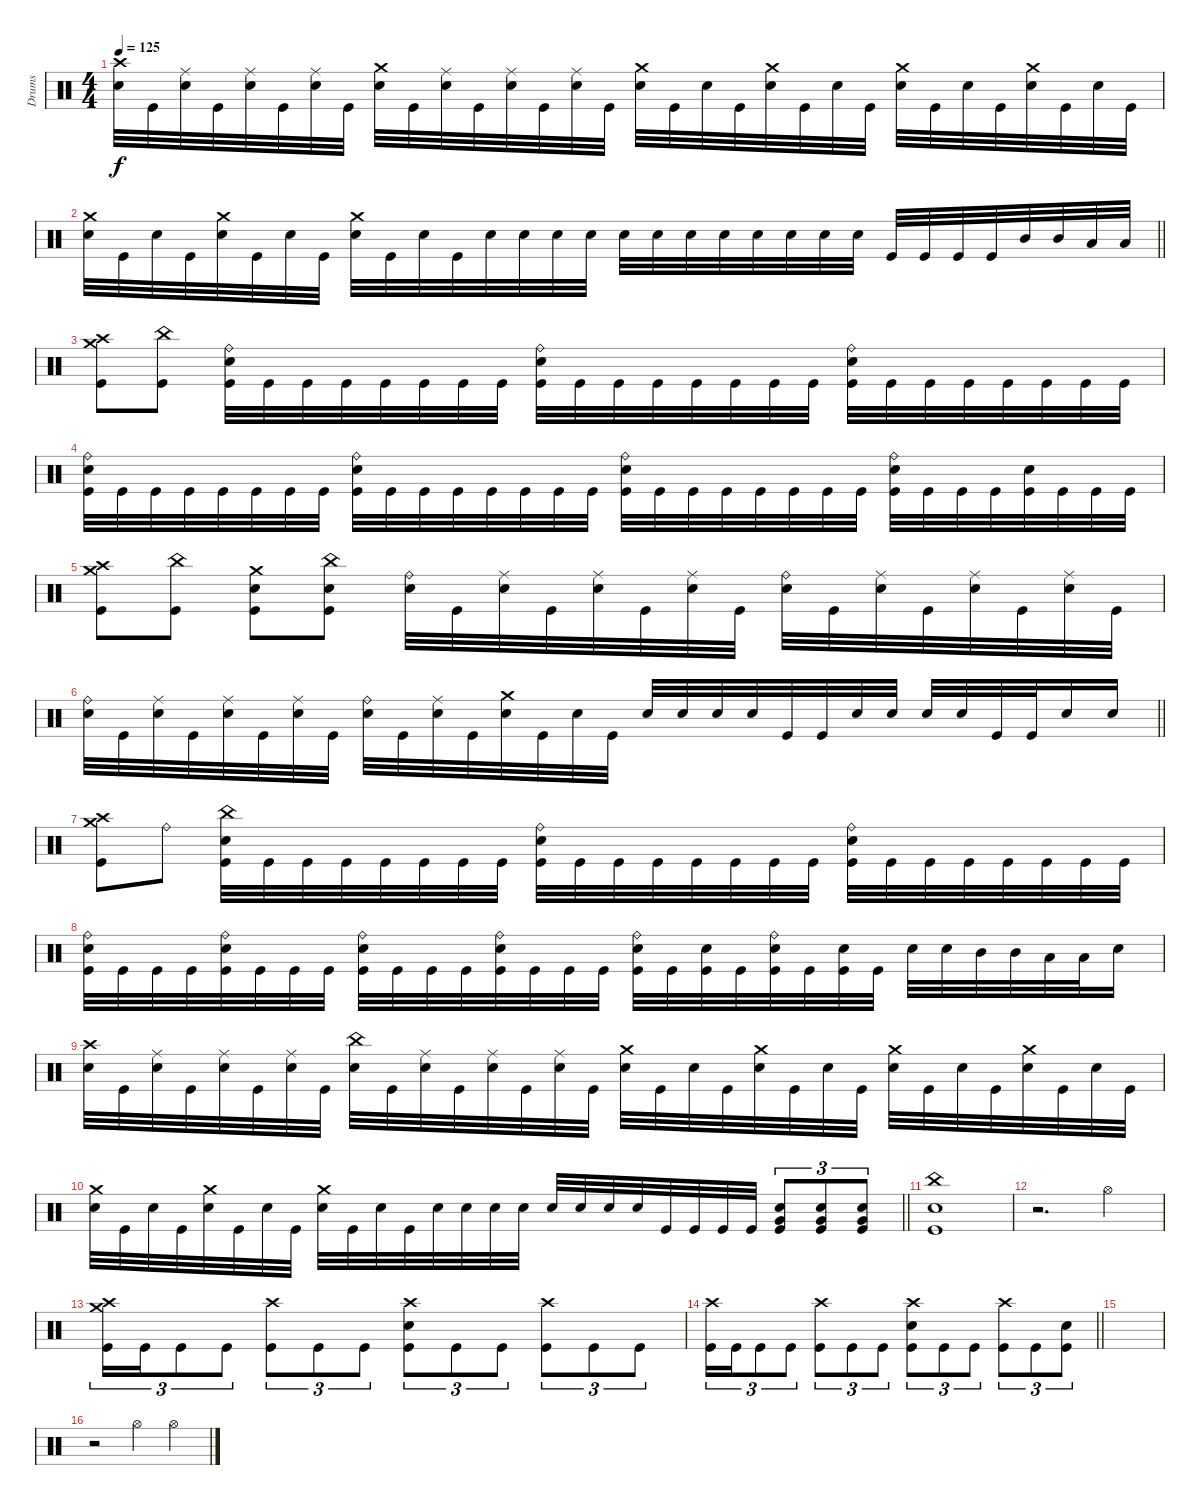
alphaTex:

\track ("Drums" "Drums") {instrument percussion}
\staff
\articulation defaults
\ts (4 4)
\tempo 125
\clef neutral
\ks c
("Crash high (hit)" "Electric Snare (hit)").32{dy f} "Kick (hit)".32 ("Ride (middle)" "Electric Snare (hit)").32 "Kick (hit)".32 ("Ride (middle)" "Electric Snare (hit)").32 "Kick (hit)".32 ("Ride (middle)" "Electric Snare (hit)").32 "Kick (hit)".32 ("Crash medium (hit)" "Electric Snare (hit)").32 "Kick (hit)".32 ("Ride (middle)" "Electric Snare (hit)").32 "Kick (hit)".32 ("Ride (middle)" "Electric Snare (hit)").32 "Kick (hit)".32 ("Ride (middle)" "Electric Snare (hit)").32 "Kick (hit)".32 ("Crash medium (hit)" "Electric Snare (hit)").32 "Kick (hit)".32 "Electric Snare (hit)".32 "Kick (hit)".32 ("Crash medium (hit)" "Electric Snare (hit)").32 "Kick (hit)".32 "Electric Snare (hit)".32 "Kick (hit)".32 ("Crash medium (hit)" "Electric Snare (hit)").32 "Kick (hit)".32 "Electric Snare (hit)".32 "Kick (hit)".32 ("Crash medium (hit)" "Electric Snare (hit)").32 "Kick (hit)".32 "Electric Snare (hit)".32 "Kick (hit)".32 |
\barLineRight lightlight
("Crash medium (hit)" "Electric Snare (hit)").32 "Kick (hit)".32 "Electric Snare (hit)".32 "Kick (hit)".32 ("Crash medium (hit)" "Electric Snare (hit)").32 "Kick (hit)".32 "Electric Snare (hit)".32 "Kick (hit)".32 ("Crash medium (hit)" "Electric Snare (hit)").32 "Kick (hit)".32 "Electric Snare (hit)".32 "Kick (hit)".32 "Electric Snare (hit)".32 "Electric Snare (hit)".32 "Electric Snare (hit)".32 "Electric Snare (hit)".32 "Electric Snare (hit)".32 "Electric Snare (hit)".32 "Electric Snare (hit)".32 "Electric Snare (hit)".32 "Electric Snare (hit)".32 "Electric Snare (hit)".32 "Electric Snare (hit)".32 "Electric Snare (hit)".32 "Kick (hit)".32 "Kick (hit)".32 "Kick (hit)".32 "Kick (hit)".32 "Mid Tom (hit)".32 "Mid Tom (hit)".32 "Low Tom (hit)".32 "Low Tom (hit)".32 |
("Crash high (hit)" "Crash medium (hit)" "Kick (hit)").8 ("China (hit)" "Kick (hit)").8 ("Ride (bell)" "Electric Snare (hit)" "Kick (hit)").32 "Kick (hit)".32 "Kick (hit)".32 "Kick (hit)".32 "Kick (hit)".32 "Kick (hit)".32 "Kick (hit)".32 "Kick (hit)".32 ("Ride (bell)" "Electric Snare (hit)" "Kick (hit)").32 "Kick (hit)".32 "Kick (hit)".32 "Kick (hit)".32 "Kick (hit)".32 "Kick (hit)".32 "Kick (hit)".32 "Kick (hit)".32 ("Ride (bell)" "Electric Snare (hit)" "Kick (hit)").32 "Kick (hit)".32 "Kick (hit)".32 "Kick (hit)".32 "Kick (hit)".32 "Kick (hit)".32 "Kick (hit)".32 "Kick (hit)".32 |
("Ride (bell)" "Electric Snare (hit)" "Kick (hit)").32 "Kick (hit)".32 "Kick (hit)".32 "Kick (hit)".32 "Kick (hit)".32 "Kick (hit)".32 "Kick (hit)".32 "Kick (hit)".32 ("Ride (bell)" "Electric Snare (hit)" "Kick (hit)").32 "Kick (hit)".32 "Kick (hit)".32 "Kick (hit)".32 "Kick (hit)".32 "Kick (hit)".32 "Kick (hit)".32 "Kick (hit)".32 ("Ride (bell)" "Electric Snare (hit)" "Kick (hit)").32 "Kick (hit)".32 "Kick (hit)".32 "Kick (hit)".32 "Kick (hit)".32 "Kick (hit)".32 "Kick (hit)".32 "Kick (hit)".32 ("Ride (bell)" "Electric Snare (hit)" "Kick (hit)").32 "Kick (hit)".32 "Kick (hit)".32 "Kick (hit)".32 ("Electric Snare (hit)" "Kick (hit)").32 "Kick (hit)".32 "Kick (hit)".32 "Kick (hit)".32 |
("Crash high (hit)" "Crash medium (hit)" "Kick (hit)").8 ("China (hit)" "Kick (hit)").8 ("Crash medium (hit)" "Electric Snare (hit)" "Kick (hit)").8 ("China (hit)" "Electric Snare (hit)" "Kick (hit)").8 ("Ride (bell)" "Electric Snare (hit)").32 "Kick (hit)".32 ("Ride (middle)" "Electric Snare (hit)").32 "Kick (hit)".32 ("Ride (middle)" "Electric Snare (hit)").32 "Kick (hit)".32 ("Ride (middle)" "Electric Snare (hit)").32 "Kick (hit)".32 ("Ride (bell)" "Electric Snare (hit)").32 "Kick (hit)".32 ("Ride (middle)" "Electric Snare (hit)").32 "Kick (hit)".32 ("Ride (middle)" "Electric Snare (hit)").32 "Kick (hit)".32 ("Ride (middle)" "Electric Snare (hit)").32 "Kick (hit)".32 |
\barLineRight lightlight
("Ride (bell)" "Electric Snare (hit)").32 "Kick (hit)".32 ("Ride (middle)" "Electric Snare (hit)").32 "Kick (hit)".32 ("Ride (middle)" "Electric Snare (hit)").32 "Kick (hit)".32 ("Ride (middle)" "Electric Snare (hit)").32 "Kick (hit)".32 ("Ride (bell)" "Electric Snare (hit)").32 "Kick (hit)".32 ("Ride (middle)" "Electric Snare (hit)").32 "Kick (hit)".32 ("Crash medium (hit)" "Electric Snare (hit)").32 "Kick (hit)".32 "Electric Snare (hit)".32 "Kick (hit)".32 "Electric Snare (hit)".32 "Electric Snare (hit)".32 "Electric Snare (hit)".32 "Electric Snare (hit)".32 "Kick (hit)".32 "Kick (hit)".32 "Electric Snare (hit)".32 "Electric Snare (hit)".32 "Electric Snare (hit)".32 "Electric Snare (hit)".32 "Kick (hit)".32 "Kick (hit)".32 "Electric Snare (hit)".16 "Electric Snare (hit)".16 |
("Crash high (hit)" "Crash medium (hit)" "Kick (hit)").8 "Ride (bell)".8 ("China (hit)" "Electric Snare (hit)" "Kick (hit)").32 "Kick (hit)".32 "Kick (hit)".32 "Kick (hit)".32 "Kick (hit)".32 "Kick (hit)".32 "Kick (hit)".32 "Kick (hit)".32 ("Ride (bell)" "Electric Snare (hit)" "Kick (hit)").32 "Kick (hit)".32 "Kick (hit)".32 "Kick (hit)".32 "Kick (hit)".32 "Kick (hit)".32 "Kick (hit)".32 "Kick (hit)".32 ("Ride (bell)" "Electric Snare (hit)" "Kick (hit)").32 "Kick (hit)".32 "Kick (hit)".32 "Kick (hit)".32 "Kick (hit)".32 "Kick (hit)".32 "Kick (hit)".32 "Kick (hit)".32 |
("Ride (bell)" "Electric Snare (hit)" "Kick (hit)").32 "Kick (hit)".32 "Kick (hit)".32 "Kick (hit)".32 ("Ride (bell)" "Electric Snare (hit)" "Kick (hit)").32 "Kick (hit)".32 "Kick (hit)".32 "Kick (hit)".32 ("Ride (bell)" "Electric Snare (hit)" "Kick (hit)").32 "Kick (hit)".32 "Kick (hit)".32 "Kick (hit)".32 ("Ride (bell)" "Electric Snare (hit)" "Kick (hit)").32 "Kick (hit)".32 "Kick (hit)".32 "Kick (hit)".32 ("Ride (bell)" "Electric Snare (hit)" "Kick (hit)").32 "Kick (hit)".32 ("Electric Snare (hit)" "Kick (hit)").32 "Kick (hit)".32 ("Ride (bell)" "Electric Snare (hit)" "Kick (hit)").32 "Kick (hit)".32 ("Electric Snare (hit)" "Kick (hit)").32 "Kick (hit)".32 "Electric Snare (hit)".32 "Electric Snare (hit)".32 "Mid Tom (hit)".32 "Mid Tom (hit)".32 "Low Tom (hit)".32 "Low Tom (hit)".32 "Electric Snare (hit)".16 |
("Crash high (hit)" "Electric Snare (hit)").32 "Kick (hit)".32 ("Ride (middle)" "Electric Snare (hit)").32 "Kick (hit)".32 ("Ride (middle)" "Electric Snare (hit)").32 "Kick (hit)".32 ("Ride (middle)" "Electric Snare (hit)").32 "Kick (hit)".32 ("China (hit)" "Electric Snare (hit)").32 "Kick (hit)".32 ("Ride (middle)" "Electric Snare (hit)").32 "Kick (hit)".32 ("Ride (middle)" "Electric Snare (hit)").32 "Kick (hit)".32 ("Ride (middle)" "Electric Snare (hit)").32 "Kick (hit)".32 ("Crash medium (hit)" "Electric Snare (hit)").32 "Kick (hit)".32 "Electric Snare (hit)".32 "Kick (hit)".32 ("Crash medium (hit)" "Electric Snare (hit)").32 "Kick (hit)".32 "Electric Snare (hit)".32 "Kick (hit)".32 ("Crash medium (hit)" "Electric Snare (hit)").32 "Kick (hit)".32 "Electric Snare (hit)".32 "Kick (hit)".32 ("Crash medium (hit)" "Electric Snare (hit)").32 "Kick (hit)".32 "Electric Snare (hit)".32 "Kick (hit)".32 |
\barLineRight lightlight
("Crash medium (hit)" "Electric Snare (hit)").32 "Kick (hit)".32 "Electric Snare (hit)".32 "Kick (hit)".32 ("Crash medium (hit)" "Electric Snare (hit)").32 "Kick (hit)".32 "Electric Snare (hit)".32 "Kick (hit)".32 ("Crash medium (hit)" "Electric Snare (hit)").32 "Kick (hit)".32 "Electric Snare (hit)".32 "Kick (hit)".32 "Electric Snare (hit)".32 "Electric Snare (hit)".32 "Electric Snare (hit)".32 "Electric Snare (hit)".32 "Electric Snare (hit)".32 "Electric Snare (hit)".32 "Electric Snare (hit)".32 "Electric Snare (hit)".32 "Kick (hit)".32 "Kick (hit)".32 "Kick (hit)".32 "Kick (hit)".32 ("Very Low Tom (hit)" "Electric Snare (hit)" "Kick (hit)").8{tu (3 2)} ("Very Low Tom (hit)" "Electric Snare (hit)" "Kick (hit)").8{tu (3 2)} ("Very Low Tom (hit)" "Electric Snare (hit)" "Kick (hit)").8{tu (3 2)} |
\section ("" "")
("China (hit)" "Electric Snare (hit)" "Kick (hit)").1 |
r.2{d} "Hi-Hat (open)".4 |
("Crash high (hit)" "Crash medium (hit)" "Kick (hit)").16{tu (3 2)} "Kick (hit)".16{tu (3 2)} "Kick (hit)".8{tu (3 2)} "Kick (hit)".8{tu (3 2)} ("Crash high (hit)" "Kick (hit)").8{tu (3 2)} "Kick (hit)".8{tu (3 2)} "Kick (hit)".8{tu (3 2)} ("Crash high (hit)" "Electric Snare (hit)" "Kick (hit)").8{tu (3 2)} "Kick (hit)".8{tu (3 2)} "Kick (hit)".8{tu (3 2)} ("Crash high (hit)" "Kick (hit)").8{tu (3 2)} "Kick (hit)".8{tu (3 2)} "Kick (hit)".8{tu (3 2)} |
\barLineRight lightlight
("Crash high (hit)" "Kick (hit)").16{tu (3 2)} "Kick (hit)".16{tu (3 2)} "Kick (hit)".8{tu (3 2)} "Kick (hit)".8{tu (3 2)} ("Crash high (hit)" "Kick (hit)").8{tu (3 2)} "Kick (hit)".8{tu (3 2)} "Kick (hit)".8{tu (3 2)} ("Crash high (hit)" "Electric Snare (hit)" "Kick (hit)").8{tu (3 2)} "Kick (hit)".8{tu (3 2)} "Kick (hit)".8{tu (3 2)} ("Crash high (hit)" "Kick (hit)").8{tu (3 2)} "Kick (hit)".8{tu (3 2)} ("Electric Snare (hit)" "Kick (hit)").8{tu (3 2)} |
|
r.2 "Hi-Hat (open)".4 "Hi-Hat (open)".4
